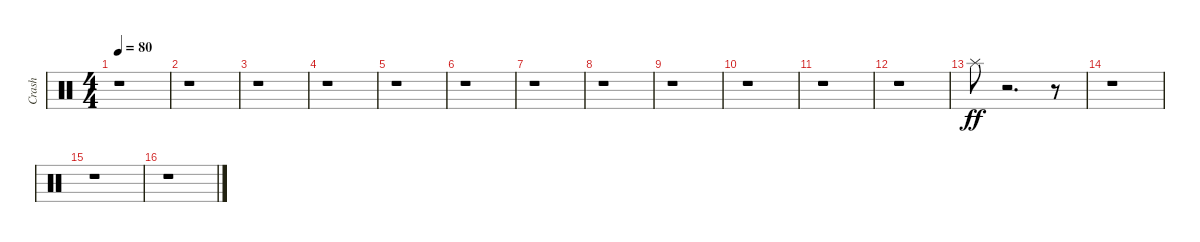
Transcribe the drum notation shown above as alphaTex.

\track ("Crash" "Crash") {instrument percussion}
\staff {score}
\articulation defaults
\ts (4 4)
\tempo 80
\clef neutral
\ks c
r.1{dy ff} |
r.1 |
r.1 |
r.1 |
r.1 |
r.1 |
r.1 |
r.1 |
r.1 |
r.1 |
r.1 |
r.1 |
"Splash (hit)".8 r.2{d} r.8 |
r.1 |
r.1 |
r.1
